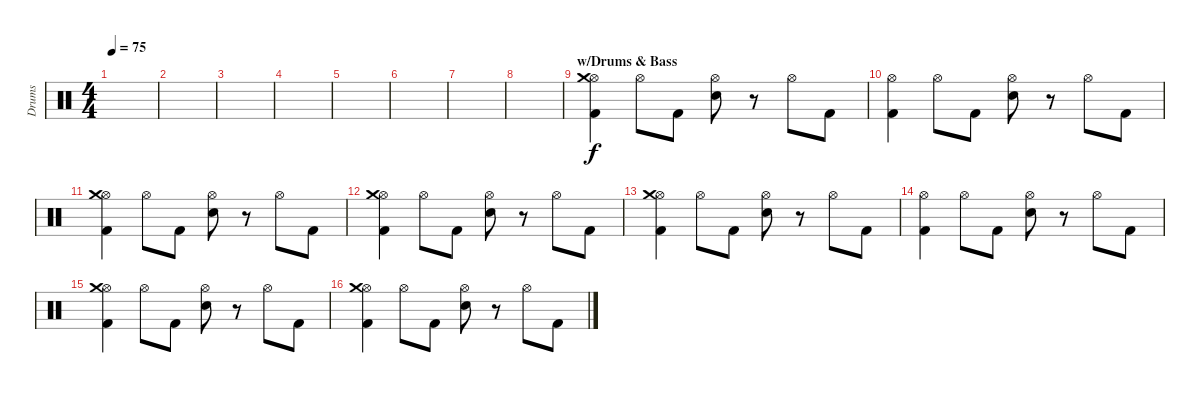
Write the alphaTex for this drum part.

\track ("Drums" "Drums") {instrument percussion}
\staff {score}
\articulation defaults
\ts (4 4)
\tempo 75
\clef neutral
\ks c
|
|
|
|
|
|
|
|
\section ("" "w/Drums & Bass")
("Hi-Hat (open)" "Crash medium (hit)" "Kick (hit) 2").4 "Hi-Hat (open)".8 "Kick (hit) 2".8 ("Hi-Hat (open)" "Snare (hit) 2").8 r.8 "Hi-Hat (open)".8 "Kick (hit) 2".8 |
("Hi-Hat (open)" "Kick (hit) 2").4 "Hi-Hat (open)".8 "Kick (hit) 2".8 ("Hi-Hat (open)" "Snare (hit) 2").8 r.8 "Hi-Hat (open)".8 "Kick (hit) 2".8 |
("Hi-Hat (open)" "Crash medium (hit)" "Kick (hit) 2").4 "Hi-Hat (open)".8 "Kick (hit) 2".8 ("Hi-Hat (open)" "Snare (hit) 2").8 r.8 "Hi-Hat (open)".8 "Kick (hit) 2".8 |
("Hi-Hat (open)" "Crash medium (hit)" "Kick (hit) 2").4 "Hi-Hat (open)".8 "Kick (hit) 2".8 ("Hi-Hat (open)" "Snare (hit) 2").8 r.8 "Hi-Hat (open)".8 "Kick (hit) 2".8 |
("Hi-Hat (open)" "Crash medium (hit)" "Kick (hit) 2").4 "Hi-Hat (open)".8 "Kick (hit) 2".8 ("Hi-Hat (open)" "Snare (hit) 2").8 r.8 "Hi-Hat (open)".8 "Kick (hit) 2".8 |
("Hi-Hat (open)" "Kick (hit) 2").4 "Hi-Hat (open)".8 "Kick (hit) 2".8 ("Hi-Hat (open)" "Snare (hit) 2").8 r.8 "Hi-Hat (open)".8 "Kick (hit) 2".8 |
("Hi-Hat (open)" "Crash medium (hit)" "Kick (hit) 2").4 "Hi-Hat (open)".8 "Kick (hit) 2".8 ("Hi-Hat (open)" "Snare (hit) 2").8 r.8 "Hi-Hat (open)".8 "Kick (hit) 2".8 |
("Hi-Hat (open)" "Crash medium (hit)" "Kick (hit) 2").4 "Hi-Hat (open)".8 "Kick (hit) 2".8 ("Hi-Hat (open)" "Snare (hit) 2").8 r.8 "Hi-Hat (open)".8 "Kick (hit) 2".8
